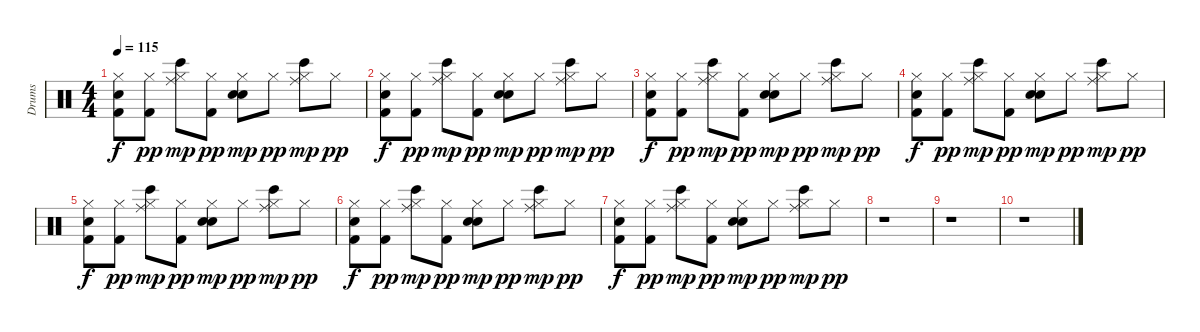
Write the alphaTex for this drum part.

\track ("Drums" "Drums") {instrument percussion}
\staff {score}
\articulation defaults
\ts (4 4)
\tempo 115
\clef neutral
\ks c
("Hi-Hat (closed)" "Hand Clap (hit)" "Kick (hit) 2").8{dy f} ("Hi-Hat (closed)" "Kick (hit) 2").8{dy pp} ("Hi-Hat (closed)" "Ride (middle)" "Bongo High (hit)").8{dy mp} ("Hi-Hat (closed)" "Kick (hit) 2").8{dy pp} ("Hi-Hat (closed)" "Hand Clap (hit)" "Electric Snare (hit)").8{dy mp} "Hi-Hat (closed)".8{dy pp} ("Hi-Hat (closed)" "Ride (middle)" "Bongo High (hit)").8{dy mp} "Hi-Hat (closed)".8{dy pp} |
("Hi-Hat (closed)" "Hand Clap (hit)" "Kick (hit) 2").8{dy f} ("Hi-Hat (closed)" "Kick (hit) 2").8{dy pp} ("Hi-Hat (closed)" "Ride (middle)" "Bongo High (hit)").8{dy mp} ("Hi-Hat (closed)" "Kick (hit) 2").8{dy pp} ("Hi-Hat (closed)" "Hand Clap (hit)" "Electric Snare (hit)").8{dy mp} "Hi-Hat (closed)".8{dy pp} ("Hi-Hat (closed)" "Ride (middle)" "Bongo High (hit)").8{dy mp} "Hi-Hat (closed)".8{dy pp} |
("Hi-Hat (closed)" "Hand Clap (hit)" "Kick (hit) 2").8{dy f} ("Hi-Hat (closed)" "Kick (hit) 2").8{dy pp} ("Hi-Hat (closed)" "Ride (middle)" "Bongo High (hit)").8{dy mp} ("Hi-Hat (closed)" "Kick (hit) 2").8{dy pp} ("Hi-Hat (closed)" "Hand Clap (hit)" "Electric Snare (hit)").8{dy mp} "Hi-Hat (closed)".8{dy pp} ("Hi-Hat (closed)" "Ride (middle)" "Bongo High (hit)").8{dy mp} "Hi-Hat (closed)".8{dy pp} |
("Hi-Hat (closed)" "Hand Clap (hit)" "Kick (hit) 2").8{dy f} ("Hi-Hat (closed)" "Kick (hit) 2").8{dy pp} ("Hi-Hat (closed)" "Ride (middle)" "Bongo High (hit)").8{dy mp} ("Hi-Hat (closed)" "Kick (hit) 2").8{dy pp} ("Hi-Hat (closed)" "Hand Clap (hit)" "Electric Snare (hit)").8{dy mp} "Hi-Hat (closed)".8{dy pp} ("Hi-Hat (closed)" "Ride (middle)" "Bongo High (hit)").8{dy mp} "Hi-Hat (closed)".8{dy pp} |
("Hi-Hat (closed)" "Hand Clap (hit)" "Kick (hit) 2").8{dy f} ("Hi-Hat (closed)" "Kick (hit) 2").8{dy pp} ("Hi-Hat (closed)" "Ride (middle)" "Bongo High (hit)").8{dy mp} ("Hi-Hat (closed)" "Kick (hit) 2").8{dy pp} ("Hi-Hat (closed)" "Hand Clap (hit)" "Electric Snare (hit)").8{dy mp} "Hi-Hat (closed)".8{dy pp} ("Hi-Hat (closed)" "Ride (middle)" "Bongo High (hit)").8{dy mp} "Hi-Hat (closed)".8{dy pp} |
("Hi-Hat (closed)" "Hand Clap (hit)" "Kick (hit) 2").8{dy f} ("Hi-Hat (closed)" "Kick (hit) 2").8{dy pp} ("Hi-Hat (closed)" "Ride (middle)" "Bongo High (hit)").8{dy mp} ("Hi-Hat (closed)" "Kick (hit) 2").8{dy pp} ("Hi-Hat (closed)" "Hand Clap (hit)" "Electric Snare (hit)").8{dy mp} "Hi-Hat (closed)".8{dy pp} ("Hi-Hat (closed)" "Ride (middle)" "Bongo High (hit)").8{dy mp} "Hi-Hat (closed)".8{dy pp} |
("Hi-Hat (closed)" "Hand Clap (hit)" "Kick (hit) 2").8{dy f} ("Hi-Hat (closed)" "Kick (hit) 2").8{dy pp} ("Hi-Hat (closed)" "Ride (middle)" "Bongo High (hit)").8{dy mp} ("Hi-Hat (closed)" "Kick (hit) 2").8{dy pp} ("Hi-Hat (closed)" "Hand Clap (hit)" "Electric Snare (hit)").8{dy mp} "Hi-Hat (closed)".8{dy pp} ("Hi-Hat (closed)" "Ride (middle)" "Bongo High (hit)").8{dy mp} "Hi-Hat (closed)".8{dy pp} |
r.1 |
r.1 |
r.1
